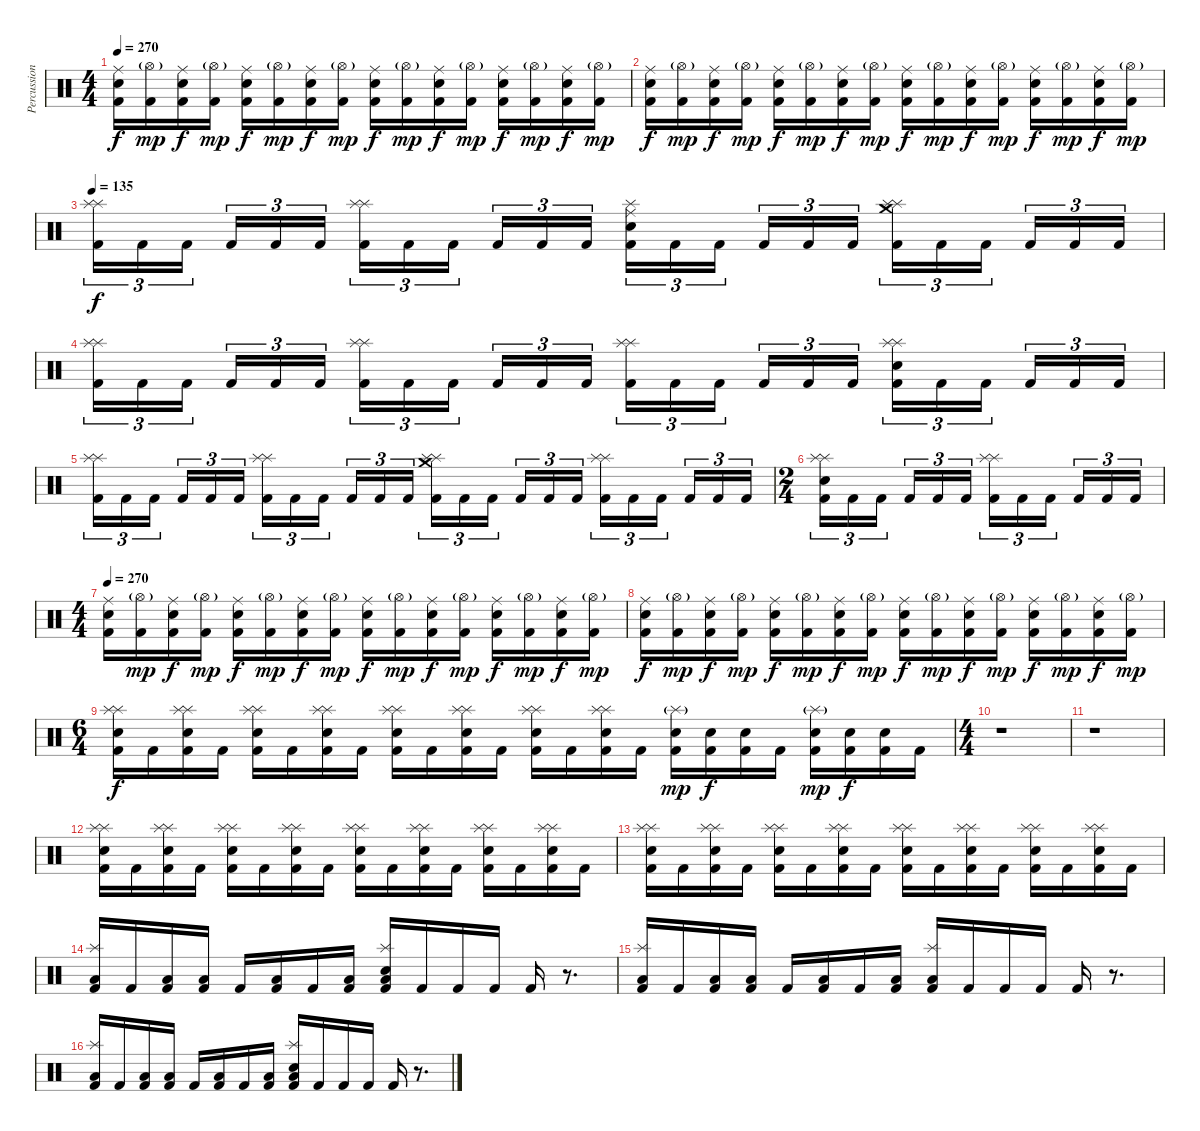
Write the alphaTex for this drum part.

\track ("Percussions" "Percussion") {instrument percussion}
\staff {score}
\articulation defaults
\ts (4 4)
\tempo 270
\clef neutral
\ks c
("Ride (middle)" "Electric Snare (hit)" "Kick (hit) 2").16{dy f} ("Hi-Hat (open)"{g} "Kick (hit) 2").16{dy mp} ("Ride (middle)" "Electric Snare (hit)" "Kick (hit) 2").16{dy f} ("Hi-Hat (open)"{g} "Kick (hit) 2").16{dy mp} ("Ride (middle)" "Electric Snare (hit)" "Kick (hit) 2").16{dy f} ("Hi-Hat (open)"{g} "Kick (hit) 2").16{dy mp} ("Ride (middle)" "Electric Snare (hit)" "Kick (hit) 2").16{dy f} ("Hi-Hat (open)"{g} "Kick (hit) 2").16{dy mp} ("Ride (middle)" "Electric Snare (hit)" "Kick (hit) 2").16{dy f} ("Hi-Hat (open)"{g} "Kick (hit) 2").16{dy mp} ("Ride (middle)" "Electric Snare (hit)" "Kick (hit) 2").16{dy f} ("Hi-Hat (open)"{g} "Kick (hit) 2").16{dy mp} ("Ride (middle)" "Electric Snare (hit)" "Kick (hit) 2").16{dy f} ("Hi-Hat (open)"{g} "Kick (hit) 2").16{dy mp} ("Ride (middle)" "Electric Snare (hit)" "Kick (hit) 2").16{dy f} ("Hi-Hat (open)"{g} "Kick (hit) 2").16{dy mp} |
("Ride (middle)" "Electric Snare (hit)" "Kick (hit) 2").16{dy f} ("Hi-Hat (open)"{g} "Kick (hit) 2").16{dy mp} ("Ride (middle)" "Electric Snare (hit)" "Kick (hit) 2").16{dy f} ("Hi-Hat (open)"{g} "Kick (hit) 2").16{dy mp} ("Ride (middle)" "Electric Snare (hit)" "Kick (hit) 2").16{dy f} ("Hi-Hat (open)"{g} "Kick (hit) 2").16{dy mp} ("Ride (middle)" "Electric Snare (hit)" "Kick (hit) 2").16{dy f} ("Hi-Hat (open)"{g} "Kick (hit) 2").16{dy mp} ("Ride (middle)" "Electric Snare (hit)" "Kick (hit) 2").16{dy f} ("Hi-Hat (open)"{g} "Kick (hit) 2").16{dy mp} ("Ride (middle)" "Electric Snare (hit)" "Kick (hit) 2").16{dy f} ("Hi-Hat (open)"{g} "Kick (hit) 2").16{dy mp} ("Ride (middle)" "Electric Snare (hit)" "Kick (hit) 2").16{dy f} ("Hi-Hat (open)"{g} "Kick (hit) 2").16{dy mp} ("Ride (middle)" "Electric Snare (hit)" "Kick (hit) 2").16{dy f} ("Hi-Hat (open)"{g} "Kick (hit) 2").16{dy mp} |
\tempo 135
("Splash (hit)" "Splash (hit)" "Kick (hit) 2").16{tu (3 2) dy f} "Kick (hit) 2".16{tu (3 2)} "Kick (hit) 2".16{tu (3 2) beam splitsecondary} "Kick (hit) 2".16{tu (3 2)} "Kick (hit) 2".16{tu (3 2)} "Kick (hit) 2".16{tu (3 2)} ("Splash (hit)" "Splash (hit)" "Kick (hit) 2").16{tu (3 2)} "Kick (hit) 2".16{tu (3 2)} "Kick (hit) 2".16{tu (3 2) beam splitsecondary} "Kick (hit) 2".16{tu (3 2)} "Kick (hit) 2".16{tu (3 2)} "Kick (hit) 2".16{tu (3 2)} ("Splash (hit)" "Ride (middle)" "Electric Snare (hit)" "Kick (hit) 2").16{tu (3 2)} "Kick (hit) 2".16{tu (3 2)} "Kick (hit) 2".16{tu (3 2) beam splitsecondary} "Kick (hit) 2".16{tu (3 2)} "Kick (hit) 2".16{tu (3 2)} "Kick (hit) 2".16{tu (3 2)} ("Splash (hit)" "Splash (hit)" "Crash medium (hit)" "Kick (hit) 2").16{tu (3 2)} "Kick (hit) 2".16{tu (3 2)} "Kick (hit) 2".16{tu (3 2) beam splitsecondary} "Kick (hit) 2".16{tu (3 2)} "Kick (hit) 2".16{tu (3 2)} "Kick (hit) 2".16{tu (3 2)} |
("Splash (hit)" "Splash (hit)" "Kick (hit) 2").16{tu (3 2)} "Kick (hit) 2".16{tu (3 2)} "Kick (hit) 2".16{tu (3 2) beam splitsecondary} "Kick (hit) 2".16{tu (3 2)} "Kick (hit) 2".16{tu (3 2)} "Kick (hit) 2".16{tu (3 2)} ("Splash (hit)" "Splash (hit)" "Kick (hit) 2").16{tu (3 2)} "Kick (hit) 2".16{tu (3 2)} "Kick (hit) 2".16{tu (3 2) beam splitsecondary} "Kick (hit) 2".16{tu (3 2)} "Kick (hit) 2".16{tu (3 2)} "Kick (hit) 2".16{tu (3 2)} ("Splash (hit)" "Splash (hit)" "Kick (hit) 2").16{tu (3 2)} "Kick (hit) 2".16{tu (3 2)} "Kick (hit) 2".16{tu (3 2) beam splitsecondary} "Kick (hit) 2".16{tu (3 2)} "Kick (hit) 2".16{tu (3 2)} "Kick (hit) 2".16{tu (3 2)} ("Splash (hit)" "Splash (hit)" "Electric Snare (hit)" "Kick (hit) 2").16{tu (3 2)} "Kick (hit) 2".16{tu (3 2)} "Kick (hit) 2".16{tu (3 2) beam splitsecondary} "Kick (hit) 2".16{tu (3 2)} "Kick (hit) 2".16{tu (3 2)} "Kick (hit) 2".16{tu (3 2)} |
("Splash (hit)" "Splash (hit)" "Kick (hit) 2").16{tu (3 2)} "Kick (hit) 2".16{tu (3 2)} "Kick (hit) 2".16{tu (3 2) beam splitsecondary} "Kick (hit) 2".16{tu (3 2)} "Kick (hit) 2".16{tu (3 2)} "Kick (hit) 2".16{tu (3 2)} ("Splash (hit)" "Splash (hit)" "Kick (hit) 2").16{tu (3 2)} "Kick (hit) 2".16{tu (3 2)} "Kick (hit) 2".16{tu (3 2) beam splitsecondary} "Kick (hit) 2".16{tu (3 2)} "Kick (hit) 2".16{tu (3 2)} "Kick (hit) 2".16{tu (3 2)} ("Splash (hit)" "Splash (hit)" "Crash medium (hit)" "Kick (hit) 2").16{tu (3 2)} "Kick (hit) 2".16{tu (3 2)} "Kick (hit) 2".16{tu (3 2) beam splitsecondary} "Kick (hit) 2".16{tu (3 2)} "Kick (hit) 2".16{tu (3 2)} "Kick (hit) 2".16{tu (3 2)} ("Splash (hit)" "Splash (hit)" "Kick (hit) 2").16{tu (3 2)} "Kick (hit) 2".16{tu (3 2)} "Kick (hit) 2".16{tu (3 2) beam splitsecondary} "Kick (hit) 2".16{tu (3 2)} "Kick (hit) 2".16{tu (3 2)} "Kick (hit) 2".16{tu (3 2)} |
\ts (2 4)
("Splash (hit)" "Splash (hit)" "Electric Snare (hit)" "Kick (hit) 2").16{tu (3 2)} "Kick (hit) 2".16{tu (3 2)} "Kick (hit) 2".16{tu (3 2) beam splitsecondary} "Kick (hit) 2".16{tu (3 2)} "Kick (hit) 2".16{tu (3 2)} "Kick (hit) 2".16{tu (3 2)} ("Splash (hit)" "Splash (hit)" "Kick (hit) 2").16{tu (3 2)} "Kick (hit) 2".16{tu (3 2)} "Kick (hit) 2".16{tu (3 2) beam splitsecondary} "Kick (hit) 2".16{tu (3 2)} "Kick (hit) 2".16{tu (3 2)} "Kick (hit) 2".16{tu (3 2)} |
\ts (4 4)
\tempo 270
("Ride (middle)" "Electric Snare (hit)" "Kick (hit) 2").16 ("Hi-Hat (open)"{g} "Kick (hit) 2").16{dy mp} ("Ride (middle)" "Electric Snare (hit)" "Kick (hit) 2").16{dy f} ("Hi-Hat (open)"{g} "Kick (hit) 2").16{dy mp} ("Ride (middle)" "Electric Snare (hit)" "Kick (hit) 2").16{dy f} ("Hi-Hat (open)"{g} "Kick (hit) 2").16{dy mp} ("Ride (middle)" "Electric Snare (hit)" "Kick (hit) 2").16{dy f} ("Hi-Hat (open)"{g} "Kick (hit) 2").16{dy mp} ("Ride (middle)" "Electric Snare (hit)" "Kick (hit) 2").16{dy f} ("Hi-Hat (open)"{g} "Kick (hit) 2").16{dy mp} ("Ride (middle)" "Electric Snare (hit)" "Kick (hit) 2").16{dy f} ("Hi-Hat (open)"{g} "Kick (hit) 2").16{dy mp} ("Ride (middle)" "Electric Snare (hit)" "Kick (hit) 2").16{dy f} ("Hi-Hat (open)"{g} "Kick (hit) 2").16{dy mp} ("Ride (middle)" "Electric Snare (hit)" "Kick (hit) 2").16{dy f} ("Hi-Hat (open)"{g} "Kick (hit) 2").16{dy mp} |
("Ride (middle)" "Electric Snare (hit)" "Kick (hit) 2").16{dy f} ("Hi-Hat (open)"{g} "Kick (hit) 2").16{dy mp} ("Ride (middle)" "Electric Snare (hit)" "Kick (hit) 2").16{dy f} ("Hi-Hat (open)"{g} "Kick (hit) 2").16{dy mp} ("Ride (middle)" "Electric Snare (hit)" "Kick (hit) 2").16{dy f} ("Hi-Hat (open)"{g} "Kick (hit) 2").16{dy mp} ("Ride (middle)" "Electric Snare (hit)" "Kick (hit) 2").16{dy f} ("Hi-Hat (open)"{g} "Kick (hit) 2").16{dy mp} ("Ride (middle)" "Electric Snare (hit)" "Kick (hit) 2").16{dy f} ("Hi-Hat (open)"{g} "Kick (hit) 2").16{dy mp} ("Ride (middle)" "Electric Snare (hit)" "Kick (hit) 2").16{dy f} ("Hi-Hat (open)"{g} "Kick (hit) 2").16{dy mp} ("Ride (middle)" "Electric Snare (hit)" "Kick (hit) 2").16{dy f} ("Hi-Hat (open)"{g} "Kick (hit) 2").16{dy mp} ("Ride (middle)" "Electric Snare (hit)" "Kick (hit) 2").16{dy f} ("Hi-Hat (open)"{g} "Kick (hit) 2").16{dy mp} |
\ts (6 4)
("Splash (hit)" "Splash (hit)" "Electric Snare (hit)" "Kick (hit) 2").16{dy f} "Kick (hit) 2".16 ("Splash (hit)" "Splash (hit)" "Electric Snare (hit)" "Kick (hit) 2").16 "Kick (hit) 2".16 ("Splash (hit)" "Splash (hit)" "Electric Snare (hit)" "Kick (hit) 2").16 "Kick (hit) 2".16 ("Splash (hit)" "Splash (hit)" "Electric Snare (hit)" "Kick (hit) 2").16 "Kick (hit) 2".16 ("Splash (hit)" "Splash (hit)" "Electric Snare (hit)" "Kick (hit) 2").16 "Kick (hit) 2".16 ("Splash (hit)" "Splash (hit)" "Electric Snare (hit)" "Kick (hit) 2").16 "Kick (hit) 2".16 ("Splash (hit)" "Splash (hit)" "Electric Snare (hit)" "Kick (hit) 2").16 "Kick (hit) 2".16 ("Splash (hit)" "Splash (hit)" "Electric Snare (hit)" "Kick (hit) 2").16 "Kick (hit) 2".16 ("Splash (hit)"{g} "Electric Snare (hit)" "Kick (hit) 2").16{dy mp} ("Electric Snare (hit)" "Kick (hit) 2").16{dy f} ("Electric Snare (hit)" "Kick (hit) 2").16 "Kick (hit) 2".16 ("Splash (hit)"{g} "Electric Snare (hit)" "Kick (hit) 2").16{dy mp} ("Electric Snare (hit)" "Kick (hit) 2").16{dy f} ("Electric Snare (hit)" "Kick (hit) 2").16 "Kick (hit) 2".16 |
\ts (4 4)
r.1 |
r.1 |
("Splash (hit)" "Splash (hit)" "Electric Snare (hit)" "Kick (hit) 2").16 "Kick (hit) 2".16 ("Splash (hit)" "Splash (hit)" "Electric Snare (hit)" "Kick (hit) 2").16 "Kick (hit) 2".16 ("Splash (hit)" "Splash (hit)" "Electric Snare (hit)" "Kick (hit) 2").16 "Kick (hit) 2".16 ("Splash (hit)" "Splash (hit)" "Electric Snare (hit)" "Kick (hit) 2").16 "Kick (hit) 2".16 ("Splash (hit)" "Splash (hit)" "Electric Snare (hit)" "Kick (hit) 2").16 "Kick (hit) 2".16 ("Splash (hit)" "Splash (hit)" "Electric Snare (hit)" "Kick (hit) 2").16 "Kick (hit) 2".16 ("Splash (hit)" "Splash (hit)" "Electric Snare (hit)" "Kick (hit) 2").16 "Kick (hit) 2".16 ("Splash (hit)" "Splash (hit)" "Electric Snare (hit)" "Kick (hit) 2").16 "Kick (hit) 2".16 |
("Splash (hit)" "Splash (hit)" "Electric Snare (hit)" "Kick (hit) 2").16 "Kick (hit) 2".16 ("Splash (hit)" "Splash (hit)" "Electric Snare (hit)" "Kick (hit) 2").16 "Kick (hit) 2".16 ("Splash (hit)" "Splash (hit)" "Electric Snare (hit)" "Kick (hit) 2").16 "Kick (hit) 2".16 ("Splash (hit)" "Splash (hit)" "Electric Snare (hit)" "Kick (hit) 2").16 "Kick (hit) 2".16 ("Splash (hit)" "Splash (hit)" "Electric Snare (hit)" "Kick (hit) 2").16 "Kick (hit) 2".16 ("Splash (hit)" "Splash (hit)" "Electric Snare (hit)" "Kick (hit) 2").16 "Kick (hit) 2".16 ("Splash (hit)" "Splash (hit)" "Electric Snare (hit)" "Kick (hit) 2").16 "Kick (hit) 2".16 ("Splash (hit)" "Splash (hit)" "Electric Snare (hit)" "Kick (hit) 2").16 "Kick (hit) 2".16 |
("Splash (hit)" "Low Floor Tom (hit)" "Kick (hit) 2").16 "Kick (hit) 2".16 ("Low Floor Tom (hit)" "Kick (hit) 2").16 ("Low Floor Tom (hit)" "Kick (hit) 2").16 "Kick (hit) 2".16 ("Low Floor Tom (hit)" "Kick (hit) 2").16 "Kick (hit) 2".16 ("Low Floor Tom (hit)" "Kick (hit) 2").16 ("Splash (hit)" "Electric Snare (hit)" "Low Floor Tom (hit)" "Kick (hit) 2").16 "Kick (hit) 2".16 "Kick (hit) 2".16 "Kick (hit) 2".16 "Kick (hit) 2".16 r.8{d} |
("Splash (hit)" "Low Floor Tom (hit)" "Kick (hit) 2").16 "Kick (hit) 2".16 ("Low Floor Tom (hit)" "Kick (hit) 2").16 ("Low Floor Tom (hit)" "Kick (hit) 2").16 "Kick (hit) 2".16 ("Low Floor Tom (hit)" "Kick (hit) 2").16 "Kick (hit) 2".16 ("Low Floor Tom (hit)" "Kick (hit) 2").16 ("Splash (hit)" "Low Floor Tom (hit)" "Kick (hit) 2").16 "Kick (hit) 2".16 "Kick (hit) 2".16 "Kick (hit) 2".16 "Kick (hit) 2".16 r.8{d} |
("Splash (hit)" "Low Floor Tom (hit)" "Kick (hit) 2").16 "Kick (hit) 2".16 ("Low Floor Tom (hit)" "Kick (hit) 2").16 ("Low Floor Tom (hit)" "Kick (hit) 2").16 "Kick (hit) 2".16 ("Low Floor Tom (hit)" "Kick (hit) 2").16 "Kick (hit) 2".16 ("Low Floor Tom (hit)" "Kick (hit) 2").16 ("Splash (hit)" "Electric Snare (hit)" "Low Floor Tom (hit)" "Kick (hit) 2").16 "Kick (hit) 2".16 "Kick (hit) 2".16 "Kick (hit) 2".16 "Kick (hit) 2".16 r.8{d}
